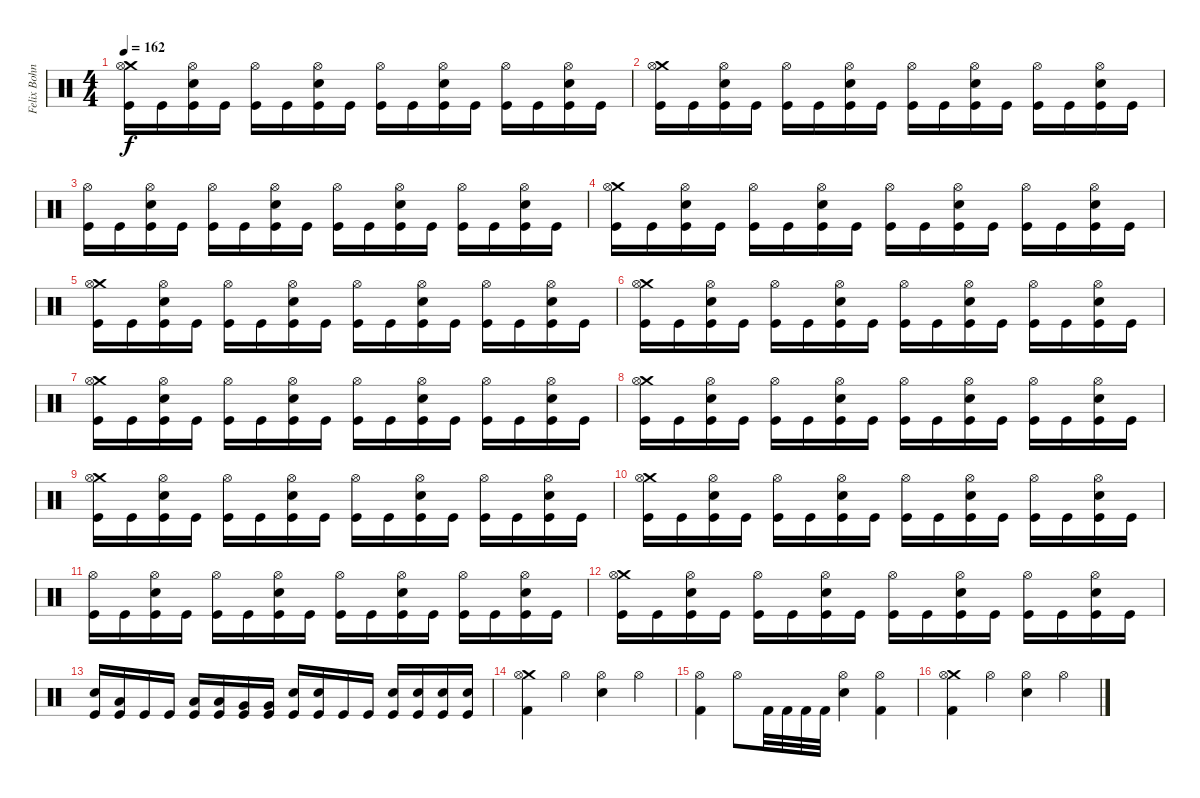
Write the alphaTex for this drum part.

\track ("Felix Bohnke" "Felix Bohn") {instrument percussion}
\staff {score}
\articulation defaults
\ts (4 4)
\tempo 162
\clef neutral
\ks c
("Crash medium (hit)" "Hi-Hat (open)" "Kick (hit)").16{dy f} "Kick (hit)".16 ("Electric Snare (hit)" "Hi-Hat (open)" "Kick (hit)").16 "Kick (hit)".16 ("Hi-Hat (open)" "Kick (hit)").16 "Kick (hit)".16 ("Electric Snare (hit)" "Hi-Hat (open)" "Kick (hit)").16 "Kick (hit)".16 ("Hi-Hat (open)" "Kick (hit)").16 "Kick (hit)".16 ("Electric Snare (hit)" "Hi-Hat (open)" "Kick (hit)").16 "Kick (hit)".16 ("Hi-Hat (open)" "Kick (hit)").16 "Kick (hit)".16 ("Electric Snare (hit)" "Hi-Hat (open)" "Kick (hit)").16 "Kick (hit)".16 |
("Crash medium (hit)" "Hi-Hat (open)" "Kick (hit)").16 "Kick (hit)".16 ("Electric Snare (hit)" "Hi-Hat (open)" "Kick (hit)").16 "Kick (hit)".16 ("Hi-Hat (open)" "Kick (hit)").16 "Kick (hit)".16 ("Electric Snare (hit)" "Hi-Hat (open)" "Kick (hit)").16 "Kick (hit)".16 ("Hi-Hat (open)" "Kick (hit)").16 "Kick (hit)".16 ("Electric Snare (hit)" "Hi-Hat (open)" "Kick (hit)").16 "Kick (hit)".16 ("Hi-Hat (open)" "Kick (hit)").16 "Kick (hit)".16 ("Electric Snare (hit)" "Hi-Hat (open)" "Kick (hit)").16 "Kick (hit)".16 |
("Hi-Hat (open)" "Kick (hit)").16 "Kick (hit)".16 ("Electric Snare (hit)" "Hi-Hat (open)" "Kick (hit)").16 "Kick (hit)".16 ("Hi-Hat (open)" "Kick (hit)").16 "Kick (hit)".16 ("Electric Snare (hit)" "Hi-Hat (open)" "Kick (hit)").16 "Kick (hit)".16 ("Hi-Hat (open)" "Kick (hit)").16 "Kick (hit)".16 ("Electric Snare (hit)" "Hi-Hat (open)" "Kick (hit)").16 "Kick (hit)".16 ("Hi-Hat (open)" "Kick (hit)").16 "Kick (hit)".16 ("Electric Snare (hit)" "Hi-Hat (open)" "Kick (hit)").16 "Kick (hit)".16 |
("Crash medium (hit)" "Hi-Hat (open)" "Kick (hit)").16 "Kick (hit)".16 ("Electric Snare (hit)" "Hi-Hat (open)" "Kick (hit)").16 "Kick (hit)".16 ("Hi-Hat (open)" "Kick (hit)").16 "Kick (hit)".16 ("Electric Snare (hit)" "Hi-Hat (open)" "Kick (hit)").16 "Kick (hit)".16 ("Hi-Hat (open)" "Kick (hit)").16 "Kick (hit)".16 ("Electric Snare (hit)" "Hi-Hat (open)" "Kick (hit)").16 "Kick (hit)".16 ("Hi-Hat (open)" "Kick (hit)").16 "Kick (hit)".16 ("Electric Snare (hit)" "Hi-Hat (open)" "Kick (hit)").16 "Kick (hit)".16 |
("Crash medium (hit)" "Hi-Hat (open)" "Kick (hit)").16 "Kick (hit)".16 ("Electric Snare (hit)" "Hi-Hat (open)" "Kick (hit)").16 "Kick (hit)".16 ("Hi-Hat (open)" "Kick (hit)").16 "Kick (hit)".16 ("Electric Snare (hit)" "Hi-Hat (open)" "Kick (hit)").16 "Kick (hit)".16 ("Hi-Hat (open)" "Kick (hit)").16 "Kick (hit)".16 ("Electric Snare (hit)" "Hi-Hat (open)" "Kick (hit)").16 "Kick (hit)".16 ("Hi-Hat (open)" "Kick (hit)").16 "Kick (hit)".16 ("Electric Snare (hit)" "Hi-Hat (open)" "Kick (hit)").16 "Kick (hit)".16 |
("Crash medium (hit)" "Hi-Hat (open)" "Kick (hit)").16 "Kick (hit)".16 ("Electric Snare (hit)" "Hi-Hat (open)" "Kick (hit)").16 "Kick (hit)".16 ("Hi-Hat (open)" "Kick (hit)").16 "Kick (hit)".16 ("Electric Snare (hit)" "Hi-Hat (open)" "Kick (hit)").16 "Kick (hit)".16 ("Hi-Hat (open)" "Kick (hit)").16 "Kick (hit)".16 ("Electric Snare (hit)" "Hi-Hat (open)" "Kick (hit)").16 "Kick (hit)".16 ("Hi-Hat (open)" "Kick (hit)").16 "Kick (hit)".16 ("Electric Snare (hit)" "Hi-Hat (open)" "Kick (hit)").16 "Kick (hit)".16 |
("Crash medium (hit)" "Hi-Hat (open)" "Kick (hit)").16 "Kick (hit)".16 ("Electric Snare (hit)" "Hi-Hat (open)" "Kick (hit)").16 "Kick (hit)".16 ("Hi-Hat (open)" "Kick (hit)").16 "Kick (hit)".16 ("Electric Snare (hit)" "Hi-Hat (open)" "Kick (hit)").16 "Kick (hit)".16 ("Hi-Hat (open)" "Kick (hit)").16 "Kick (hit)".16 ("Electric Snare (hit)" "Hi-Hat (open)" "Kick (hit)").16 "Kick (hit)".16 ("Hi-Hat (open)" "Kick (hit)").16 "Kick (hit)".16 ("Electric Snare (hit)" "Hi-Hat (open)" "Kick (hit)").16 "Kick (hit)".16 |
("Crash medium (hit)" "Hi-Hat (open)" "Kick (hit)").16 "Kick (hit)".16 ("Electric Snare (hit)" "Hi-Hat (open)" "Kick (hit)").16 "Kick (hit)".16 ("Hi-Hat (open)" "Kick (hit)").16 "Kick (hit)".16 ("Electric Snare (hit)" "Hi-Hat (open)" "Kick (hit)").16 "Kick (hit)".16 ("Hi-Hat (open)" "Kick (hit)").16 "Kick (hit)".16 ("Electric Snare (hit)" "Hi-Hat (open)" "Kick (hit)").16 "Kick (hit)".16 ("Hi-Hat (open)" "Kick (hit)").16 "Kick (hit)".16 ("Electric Snare (hit)" "Hi-Hat (open)" "Kick (hit)").16 "Kick (hit)".16 |
("Crash medium (hit)" "Hi-Hat (open)" "Kick (hit)").16 "Kick (hit)".16 ("Electric Snare (hit)" "Hi-Hat (open)" "Kick (hit)").16 "Kick (hit)".16 ("Hi-Hat (open)" "Kick (hit)").16 "Kick (hit)".16 ("Electric Snare (hit)" "Hi-Hat (open)" "Kick (hit)").16 "Kick (hit)".16 ("Hi-Hat (open)" "Kick (hit)").16 "Kick (hit)".16 ("Electric Snare (hit)" "Hi-Hat (open)" "Kick (hit)").16 "Kick (hit)".16 ("Hi-Hat (open)" "Kick (hit)").16 "Kick (hit)".16 ("Electric Snare (hit)" "Hi-Hat (open)" "Kick (hit)").16 "Kick (hit)".16 |
("Crash medium (hit)" "Hi-Hat (open)" "Kick (hit)").16 "Kick (hit)".16 ("Electric Snare (hit)" "Hi-Hat (open)" "Kick (hit)").16 "Kick (hit)".16 ("Hi-Hat (open)" "Kick (hit)").16 "Kick (hit)".16 ("Electric Snare (hit)" "Hi-Hat (open)" "Kick (hit)").16 "Kick (hit)".16 ("Hi-Hat (open)" "Kick (hit)").16 "Kick (hit)".16 ("Electric Snare (hit)" "Hi-Hat (open)" "Kick (hit)").16 "Kick (hit)".16 ("Hi-Hat (open)" "Kick (hit)").16 "Kick (hit)".16 ("Electric Snare (hit)" "Hi-Hat (open)" "Kick (hit)").16 "Kick (hit)".16 |
("Hi-Hat (open)" "Kick (hit)").16 "Kick (hit)".16 ("Electric Snare (hit)" "Hi-Hat (open)" "Kick (hit)").16 "Kick (hit)".16 ("Hi-Hat (open)" "Kick (hit)").16 "Kick (hit)".16 ("Electric Snare (hit)" "Hi-Hat (open)" "Kick (hit)").16 "Kick (hit)".16 ("Hi-Hat (open)" "Kick (hit)").16 "Kick (hit)".16 ("Electric Snare (hit)" "Hi-Hat (open)" "Kick (hit)").16 "Kick (hit)".16 ("Hi-Hat (open)" "Kick (hit)").16 "Kick (hit)".16 ("Electric Snare (hit)" "Hi-Hat (open)" "Kick (hit)").16 "Kick (hit)".16 |
("Crash medium (hit)" "Hi-Hat (open)" "Kick (hit)").16 "Kick (hit)".16 ("Electric Snare (hit)" "Hi-Hat (open)" "Kick (hit)").16 "Kick (hit)".16 ("Hi-Hat (open)" "Kick (hit)").16 "Kick (hit)".16 ("Electric Snare (hit)" "Hi-Hat (open)" "Kick (hit)").16 "Kick (hit)".16 ("Hi-Hat (open)" "Kick (hit)").16 "Kick (hit)".16 ("Electric Snare (hit)" "Hi-Hat (open)" "Kick (hit)").16 "Kick (hit)".16 ("Hi-Hat (open)" "Kick (hit)").16 "Kick (hit)".16 ("Electric Snare (hit)" "Hi-Hat (open)" "Kick (hit)").16 "Kick (hit)".16 |
("Electric Snare (hit)" "Kick (hit)").16 ("Low Tom (hit)" "Kick (hit)").16 "Kick (hit)".16 "Kick (hit)".16 ("Low Tom (hit)" "Kick (hit)").16 ("Low Tom (hit)" "Kick (hit)").16 ("Very Low Tom (hit)" "Kick (hit)").16 ("Very Low Tom (hit)" "Kick (hit)").16 ("Electric Snare (hit)" "Kick (hit)").16 ("Electric Snare (hit)" "Kick (hit)").16 "Kick (hit)".16 "Kick (hit)".16 ("Electric Snare (hit)" "Kick (hit)").16 ("Electric Snare (hit)" "Kick (hit)").16 ("Electric Snare (hit)" "Kick (hit)").16 ("Electric Snare (hit)" "Kick (hit)").16 |
("Crash medium (hit)" "Kick (hit) 2" "Hi-Hat (open)").4 "Hi-Hat (open)".4 ("Electric Snare (hit)" "Hi-Hat (open)").4 "Hi-Hat (open)".4 |
("Kick (hit) 2" "Hi-Hat (open)").4 "Hi-Hat (open)".8 "Kick (hit) 2".32 "Kick (hit) 2".32 "Kick (hit) 2".32 "Kick (hit) 2".32 ("Electric Snare (hit)" "Hi-Hat (open)").4 ("Kick (hit) 2" "Hi-Hat (open)").4 |
("Crash medium (hit)" "Kick (hit) 2" "Hi-Hat (open)").4 "Hi-Hat (open)".4 ("Electric Snare (hit)" "Hi-Hat (open)").4 "Hi-Hat (open)".4
